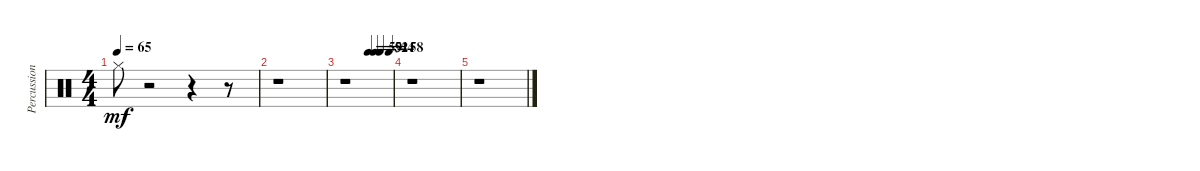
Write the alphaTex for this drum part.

\track ("Percussion" "Percussion") {instrument percussion}
\staff {score}
\articulation defaults
\ts (4 4)
\tempo 65
\clef neutral
\ks c "Hi-Hat (closed)".8{dy mf}
r.2 r.4 r.8 |
r.1 |
\tempo (59 0.5)
\tempo (52 0.625)
\tempo (44 0.75)
\tempo (58 0.9375)
r.1 |
r.1 |
r.1
